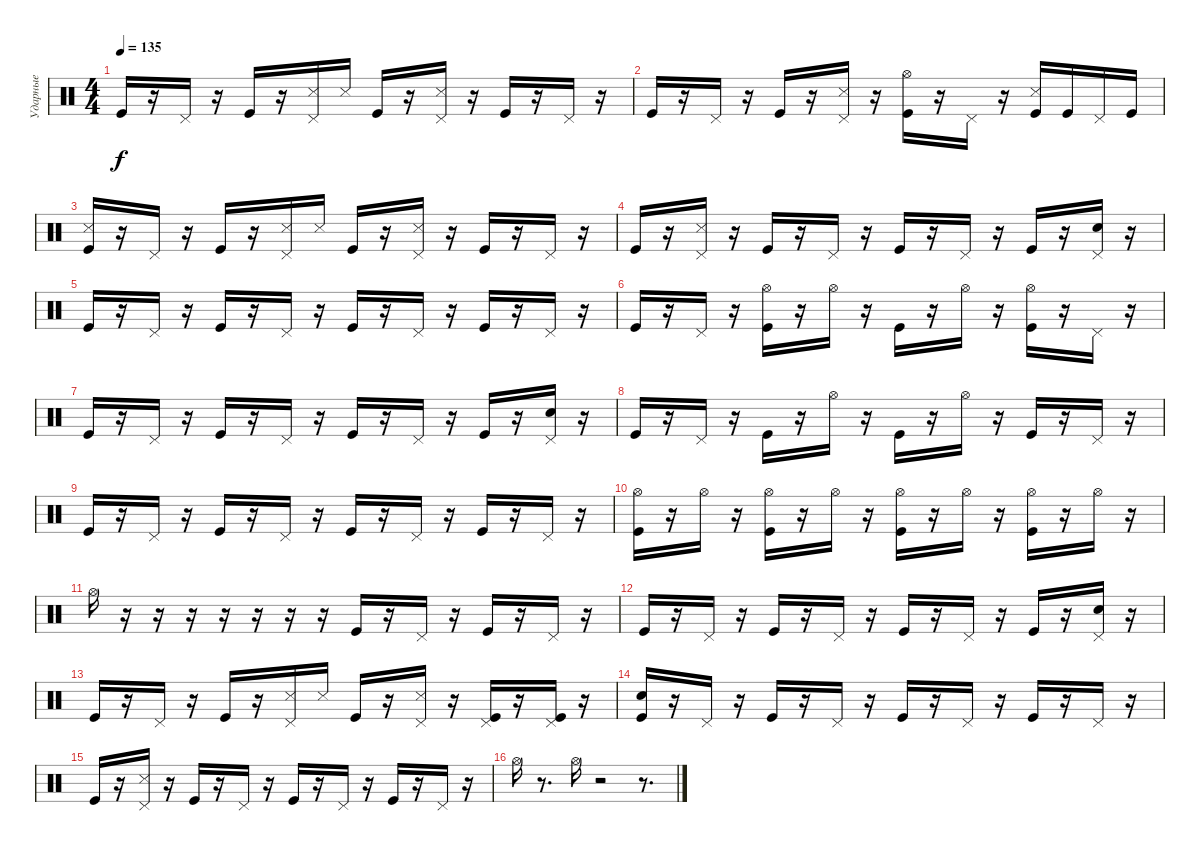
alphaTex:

\track ("Ударные" "Ударные") {instrument percussion}
\staff {score}
\articulation defaults
\ts (4 4)
\tempo 135
\clef neutral
\ks c "Kick (hit)".16{dy f}
r.16 "Pedal Hi-Hat (hit)".16 r.16 "Kick (hit)".16 r.16 ("Snare (side stick) 3" "Pedal Hi-Hat (hit)").16 "Snare (side stick) 3".16 "Kick (hit)".16 r.16 ("Snare (side stick) 3" "Pedal Hi-Hat (hit)").16 r.16 "Kick (hit)".16 r.16 "Pedal Hi-Hat (hit)".16 r.16 |
"Kick (hit)".16 r.16 "Pedal Hi-Hat (hit)".16 r.16 "Kick (hit)".16 r.16 ("Snare (side stick) 3" "Pedal Hi-Hat (hit)").16 r.16 ("Hi-Hat (open)" "Kick (hit)").16 r.16 "Pedal Hi-Hat (hit)".16 r.16 ("Snare (side stick) 3" "Kick (hit)").16 "Kick (hit)".16 "Pedal Hi-Hat (hit)".16 "Kick (hit)".16 |
("Snare (side stick) 3" "Kick (hit)").16 r.16 "Pedal Hi-Hat (hit)".16 r.16 "Kick (hit)".16 r.16 ("Snare (side stick) 3" "Pedal Hi-Hat (hit)").16 "Snare (side stick) 3".16 "Kick (hit)".16 r.16 ("Snare (side stick) 3" "Pedal Hi-Hat (hit)").16 r.16 "Kick (hit)".16 r.16 "Pedal Hi-Hat (hit)".16 r.16 |
"Kick (hit)".16 r.16 ("Snare (side stick) 3" "Pedal Hi-Hat (hit)").16 r.16 "Kick (hit)".16 r.16 "Pedal Hi-Hat (hit)".16 r.16 "Kick (hit)".16 r.16 "Pedal Hi-Hat (hit)".16 r.16 "Kick (hit)".16 r.16 ("Snare (hit) 2" "Pedal Hi-Hat (hit)").16 r.16 |
"Kick (hit)".16 r.16 "Pedal Hi-Hat (hit)".16 r.16 "Kick (hit)".16 r.16 "Pedal Hi-Hat (hit)".16 r.16 "Kick (hit)".16 r.16 "Pedal Hi-Hat (hit)".16 r.16 "Kick (hit)".16 r.16 "Pedal Hi-Hat (hit)".16 r.16 |
"Kick (hit)".16 r.16 "Pedal Hi-Hat (hit)".16 r.16 ("Hi-Hat (open)" "Kick (hit)").16 r.16 "Hi-Hat (open)".16 r.16 "Kick (hit)".16 r.16 "Hi-Hat (open)".16 r.16 ("Hi-Hat (open)" "Kick (hit)").16 r.16 "Pedal Hi-Hat (hit)".16 r.16 |
"Kick (hit)".16 r.16 "Pedal Hi-Hat (hit)".16 r.16 "Kick (hit)".16 r.16 "Pedal Hi-Hat (hit)".16 r.16 "Kick (hit)".16 r.16 "Pedal Hi-Hat (hit)".16 r.16 "Kick (hit)".16 r.16 ("Snare (hit) 2" "Pedal Hi-Hat (hit)").16 r.16 |
"Kick (hit)".16 r.16 "Pedal Hi-Hat (hit)".16 r.16 "Kick (hit)".16 r.16 "Hi-Hat (open)".16 r.16 "Kick (hit)".16 r.16 "Hi-Hat (open)".16 r.16 "Kick (hit)".16 r.16 "Pedal Hi-Hat (hit)".16 r.16 |
"Kick (hit)".16 r.16 "Pedal Hi-Hat (hit)".16 r.16 "Kick (hit)".16 r.16 "Pedal Hi-Hat (hit)".16 r.16 "Kick (hit)".16 r.16 "Pedal Hi-Hat (hit)".16 r.16 "Kick (hit)".16 r.16 "Pedal Hi-Hat (hit)".16 r.16 |
("Hi-Hat (open)" "Kick (hit)").16 r.16 "Hi-Hat (open)".16 r.16 ("Hi-Hat (open)" "Kick (hit)").16 r.16 "Hi-Hat (open)".16 r.16 ("Hi-Hat (open)" "Kick (hit)").16 r.16 "Hi-Hat (open)".16 r.16 ("Hi-Hat (open)" "Kick (hit)").16 r.16 "Hi-Hat (open)".16 r.16 |
"Hi-Hat (open)".16 r.16 r.16 r.16 r.16 r.16 r.16 r.16 "Kick (hit)".16 r.16 "Pedal Hi-Hat (hit)".16 r.16 "Kick (hit)".16 r.16 "Pedal Hi-Hat (hit)".16 r.16 |
"Kick (hit)".16 r.16 "Pedal Hi-Hat (hit)".16 r.16 "Kick (hit)".16 r.16 "Pedal Hi-Hat (hit)".16 r.16 "Kick (hit)".16 r.16 "Pedal Hi-Hat (hit)".16 r.16 "Kick (hit)".16 r.16 ("Snare (hit) 2" "Pedal Hi-Hat (hit)").16 r.16 |
"Kick (hit)".16 r.16 "Pedal Hi-Hat (hit)".16 r.16 "Kick (hit)".16 r.16 ("Snare (side stick) 3" "Pedal Hi-Hat (hit)").16 "Snare (side stick) 3".16 "Kick (hit)".16 r.16 ("Snare (side stick) 3" "Pedal Hi-Hat (hit)").16 r.16 ("Pedal Hi-Hat (hit)" "Kick (hit)").16 r.16 ("Pedal Hi-Hat (hit)" "Kick (hit)").16 r.16 |
("Snare (hit) 2" "Kick (hit)").16 r.16 "Pedal Hi-Hat (hit)".16 r.16 "Kick (hit)".16 r.16 "Pedal Hi-Hat (hit)".16 r.16 "Kick (hit)".16 r.16 "Pedal Hi-Hat (hit)".16 r.16 "Kick (hit)".16 r.16 "Pedal Hi-Hat (hit)".16 r.16 |
"Kick (hit)".16 r.16 ("Snare (side stick) 3" "Pedal Hi-Hat (hit)").16 r.16 "Kick (hit)".16 r.16 "Pedal Hi-Hat (hit)".16 r.16 "Kick (hit)".16 r.16 "Pedal Hi-Hat (hit)".16 r.16 "Kick (hit)".16 r.16 "Pedal Hi-Hat (hit)".16 r.16 |
"Hi-Hat (open)".16 r.8{d} "Hi-Hat (open)".16 r.2 r.8{d}
